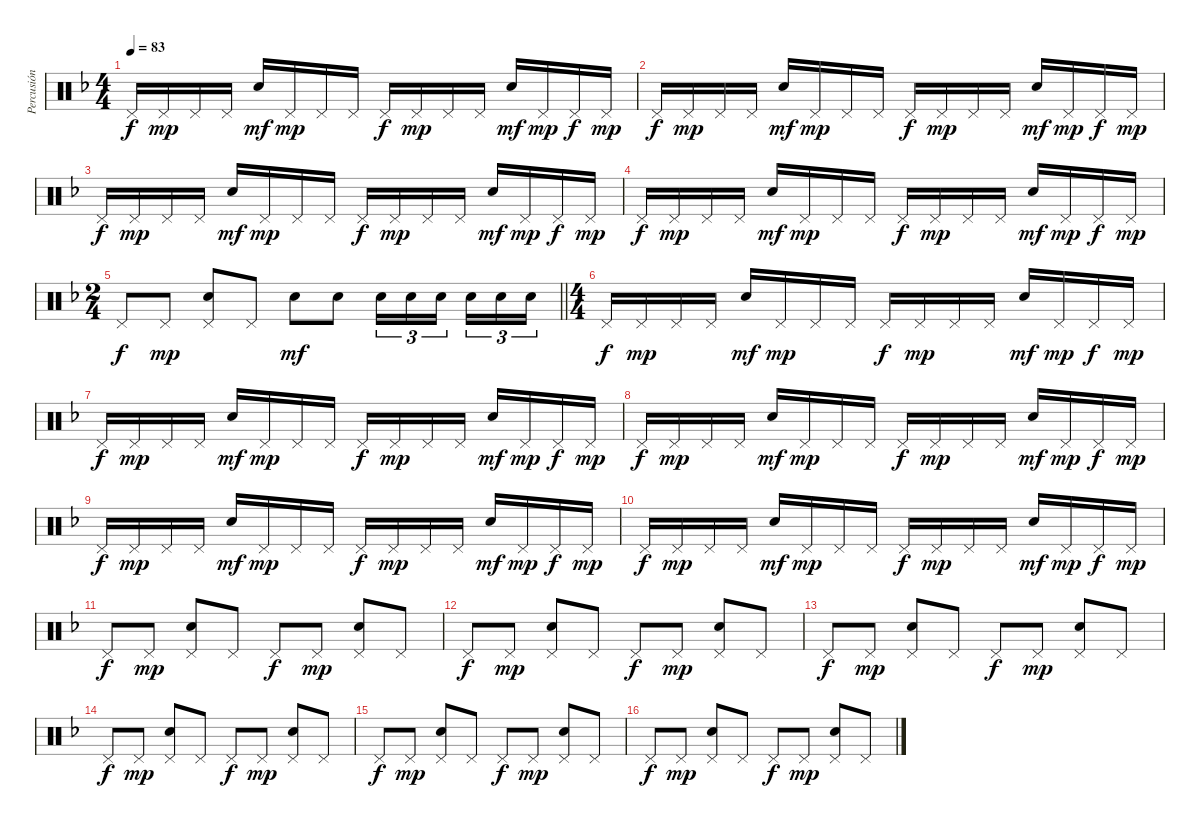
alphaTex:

\track ("Percusión" "Percusión") {instrument percussion}
\staff {score}
\articulation defaults
\ts (4 4)
\tempo 83
\clef neutral
\ks dminor "Pedal Hi-Hat (hit)".16{dy f} "Pedal Hi-Hat (hit)".16{dy mp} "Pedal Hi-Hat (hit)".16 "Pedal Hi-Hat (hit)".16 "Electric Snare (hit)".16{dy mf} "Pedal Hi-Hat (hit)".16{dy mp} "Pedal Hi-Hat (hit)".16 "Pedal Hi-Hat (hit)".16 "Pedal Hi-Hat (hit)".16{dy f} "Pedal Hi-Hat (hit)".16{dy mp} "Pedal Hi-Hat (hit)".16 "Pedal Hi-Hat (hit)".16 "Electric Snare (hit)".16{dy mf} "Pedal Hi-Hat (hit)".16{dy mp} "Pedal Hi-Hat (hit)".16{dy f} "Pedal Hi-Hat (hit)".16{dy mp}
|
"Pedal Hi-Hat (hit)".16{dy f} "Pedal Hi-Hat (hit)".16{dy mp} "Pedal Hi-Hat (hit)".16 "Pedal Hi-Hat (hit)".16 "Electric Snare (hit)".16{dy mf} "Pedal Hi-Hat (hit)".16{dy mp} "Pedal Hi-Hat (hit)".16 "Pedal Hi-Hat (hit)".16 "Pedal Hi-Hat (hit)".16{dy f} "Pedal Hi-Hat (hit)".16{dy mp} "Pedal Hi-Hat (hit)".16 "Pedal Hi-Hat (hit)".16 "Electric Snare (hit)".16{dy mf} "Pedal Hi-Hat (hit)".16{dy mp} "Pedal Hi-Hat (hit)".16{dy f} "Pedal Hi-Hat (hit)".16{dy mp} |
"Pedal Hi-Hat (hit)".16{dy f} "Pedal Hi-Hat (hit)".16{dy mp} "Pedal Hi-Hat (hit)".16 "Pedal Hi-Hat (hit)".16 "Electric Snare (hit)".16{dy mf} "Pedal Hi-Hat (hit)".16{dy mp} "Pedal Hi-Hat (hit)".16 "Pedal Hi-Hat (hit)".16 "Pedal Hi-Hat (hit)".16{dy f} "Pedal Hi-Hat (hit)".16{dy mp} "Pedal Hi-Hat (hit)".16 "Pedal Hi-Hat (hit)".16 "Electric Snare (hit)".16{dy mf} "Pedal Hi-Hat (hit)".16{dy mp} "Pedal Hi-Hat (hit)".16{dy f} "Pedal Hi-Hat (hit)".16{dy mp} |
"Pedal Hi-Hat (hit)".16{dy f} "Pedal Hi-Hat (hit)".16{dy mp} "Pedal Hi-Hat (hit)".16 "Pedal Hi-Hat (hit)".16 "Electric Snare (hit)".16{dy mf} "Pedal Hi-Hat (hit)".16{dy mp} "Pedal Hi-Hat (hit)".16 "Pedal Hi-Hat (hit)".16 "Pedal Hi-Hat (hit)".16{dy f} "Pedal Hi-Hat (hit)".16{dy mp} "Pedal Hi-Hat (hit)".16 "Pedal Hi-Hat (hit)".16 "Electric Snare (hit)".16{dy mf} "Pedal Hi-Hat (hit)".16{dy mp} "Pedal Hi-Hat (hit)".16{dy f} "Pedal Hi-Hat (hit)".16{dy mp} |
\ts (2 4)
\barLineRight lightlight "Pedal Hi-Hat (hit)".8{dy f} "Pedal Hi-Hat (hit)".8{dy mp}
("Pedal Hi-Hat (hit)" "Electric Snare (hit)").8 "Pedal Hi-Hat (hit)".8 "Electric Snare (hit)".8{dy mf} "Electric Snare (hit)".8 "Electric Snare (hit)".16{tu (3 2)} "Electric Snare (hit)".16{tu (3 2)} "Electric Snare (hit)".16{tu (3 2) beam splitsecondary} "Electric Snare (hit)".16{tu (3 2)} "Electric Snare (hit)".16{tu (3 2)} "Electric Snare (hit)".16{tu (3 2)} |
\ts (4 4)
"Pedal Hi-Hat (hit)".16{dy f} "Pedal Hi-Hat (hit)".16{dy mp} "Pedal Hi-Hat (hit)".16 "Pedal Hi-Hat (hit)".16 "Electric Snare (hit)".16{dy mf} "Pedal Hi-Hat (hit)".16{dy mp} "Pedal Hi-Hat (hit)".16 "Pedal Hi-Hat (hit)".16 "Pedal Hi-Hat (hit)".16{dy f} "Pedal Hi-Hat (hit)".16{dy mp} "Pedal Hi-Hat (hit)".16 "Pedal Hi-Hat (hit)".16 "Electric Snare (hit)".16{dy mf} "Pedal Hi-Hat (hit)".16{dy mp} "Pedal Hi-Hat (hit)".16{dy f} "Pedal Hi-Hat (hit)".16{dy mp} |
"Pedal Hi-Hat (hit)".16{dy f} "Pedal Hi-Hat (hit)".16{dy mp} "Pedal Hi-Hat (hit)".16 "Pedal Hi-Hat (hit)".16 "Electric Snare (hit)".16{dy mf} "Pedal Hi-Hat (hit)".16{dy mp} "Pedal Hi-Hat (hit)".16 "Pedal Hi-Hat (hit)".16 "Pedal Hi-Hat (hit)".16{dy f} "Pedal Hi-Hat (hit)".16{dy mp} "Pedal Hi-Hat (hit)".16 "Pedal Hi-Hat (hit)".16 "Electric Snare (hit)".16{dy mf} "Pedal Hi-Hat (hit)".16{dy mp} "Pedal Hi-Hat (hit)".16{dy f} "Pedal Hi-Hat (hit)".16{dy mp} |
"Pedal Hi-Hat (hit)".16{dy f} "Pedal Hi-Hat (hit)".16{dy mp} "Pedal Hi-Hat (hit)".16 "Pedal Hi-Hat (hit)".16 "Electric Snare (hit)".16{dy mf} "Pedal Hi-Hat (hit)".16{dy mp} "Pedal Hi-Hat (hit)".16 "Pedal Hi-Hat (hit)".16 "Pedal Hi-Hat (hit)".16{dy f} "Pedal Hi-Hat (hit)".16{dy mp} "Pedal Hi-Hat (hit)".16 "Pedal Hi-Hat (hit)".16 "Electric Snare (hit)".16{dy mf} "Pedal Hi-Hat (hit)".16{dy mp} "Pedal Hi-Hat (hit)".16{dy f} "Pedal Hi-Hat (hit)".16{dy mp} |
"Pedal Hi-Hat (hit)".16{dy f} "Pedal Hi-Hat (hit)".16{dy mp} "Pedal Hi-Hat (hit)".16 "Pedal Hi-Hat (hit)".16 "Electric Snare (hit)".16{dy mf} "Pedal Hi-Hat (hit)".16{dy mp} "Pedal Hi-Hat (hit)".16 "Pedal Hi-Hat (hit)".16 "Pedal Hi-Hat (hit)".16{dy f} "Pedal Hi-Hat (hit)".16{dy mp} "Pedal Hi-Hat (hit)".16 "Pedal Hi-Hat (hit)".16 "Electric Snare (hit)".16{dy mf} "Pedal Hi-Hat (hit)".16{dy mp} "Pedal Hi-Hat (hit)".16{dy f} "Pedal Hi-Hat (hit)".16{dy mp} |
"Pedal Hi-Hat (hit)".16{dy f} "Pedal Hi-Hat (hit)".16{dy mp} "Pedal Hi-Hat (hit)".16 "Pedal Hi-Hat (hit)".16 "Electric Snare (hit)".16{dy mf} "Pedal Hi-Hat (hit)".16{dy mp} "Pedal Hi-Hat (hit)".16 "Pedal Hi-Hat (hit)".16 "Pedal Hi-Hat (hit)".16{dy f} "Pedal Hi-Hat (hit)".16{dy mp} "Pedal Hi-Hat (hit)".16 "Pedal Hi-Hat (hit)".16 "Electric Snare (hit)".16{dy mf} "Pedal Hi-Hat (hit)".16{dy mp} "Pedal Hi-Hat (hit)".16{dy f} "Pedal Hi-Hat (hit)".16{dy mp} |
"Pedal Hi-Hat (hit)".8{dy f} "Pedal Hi-Hat (hit)".8{dy mp} ("Pedal Hi-Hat (hit)" "Electric Snare (hit)").8 "Pedal Hi-Hat (hit)".8 "Pedal Hi-Hat (hit)".8{dy f} "Pedal Hi-Hat (hit)".8{dy mp} ("Pedal Hi-Hat (hit)" "Electric Snare (hit)").8 "Pedal Hi-Hat (hit)".8 |
"Pedal Hi-Hat (hit)".8{dy f} "Pedal Hi-Hat (hit)".8{dy mp} ("Pedal Hi-Hat (hit)" "Electric Snare (hit)").8 "Pedal Hi-Hat (hit)".8 "Pedal Hi-Hat (hit)".8{dy f} "Pedal Hi-Hat (hit)".8{dy mp} ("Pedal Hi-Hat (hit)" "Electric Snare (hit)").8 "Pedal Hi-Hat (hit)".8 |
"Pedal Hi-Hat (hit)".8{dy f} "Pedal Hi-Hat (hit)".8{dy mp} ("Pedal Hi-Hat (hit)" "Electric Snare (hit)").8 "Pedal Hi-Hat (hit)".8 "Pedal Hi-Hat (hit)".8{dy f} "Pedal Hi-Hat (hit)".8{dy mp} ("Pedal Hi-Hat (hit)" "Electric Snare (hit)").8 "Pedal Hi-Hat (hit)".8 |
"Pedal Hi-Hat (hit)".8{dy f} "Pedal Hi-Hat (hit)".8{dy mp} ("Pedal Hi-Hat (hit)" "Electric Snare (hit)").8 "Pedal Hi-Hat (hit)".8 "Pedal Hi-Hat (hit)".8{dy f} "Pedal Hi-Hat (hit)".8{dy mp} ("Pedal Hi-Hat (hit)" "Electric Snare (hit)").8 "Pedal Hi-Hat (hit)".8 |
"Pedal Hi-Hat (hit)".8{dy f} "Pedal Hi-Hat (hit)".8{dy mp} ("Pedal Hi-Hat (hit)" "Electric Snare (hit)").8 "Pedal Hi-Hat (hit)".8 "Pedal Hi-Hat (hit)".8{dy f} "Pedal Hi-Hat (hit)".8{dy mp} ("Pedal Hi-Hat (hit)" "Electric Snare (hit)").8 "Pedal Hi-Hat (hit)".8 |
"Pedal Hi-Hat (hit)".8{dy f} "Pedal Hi-Hat (hit)".8{dy mp} ("Pedal Hi-Hat (hit)" "Electric Snare (hit)").8 "Pedal Hi-Hat (hit)".8 "Pedal Hi-Hat (hit)".8{dy f} "Pedal Hi-Hat (hit)".8{dy mp} ("Pedal Hi-Hat (hit)" "Electric Snare (hit)").8 "Pedal Hi-Hat (hit)".8
